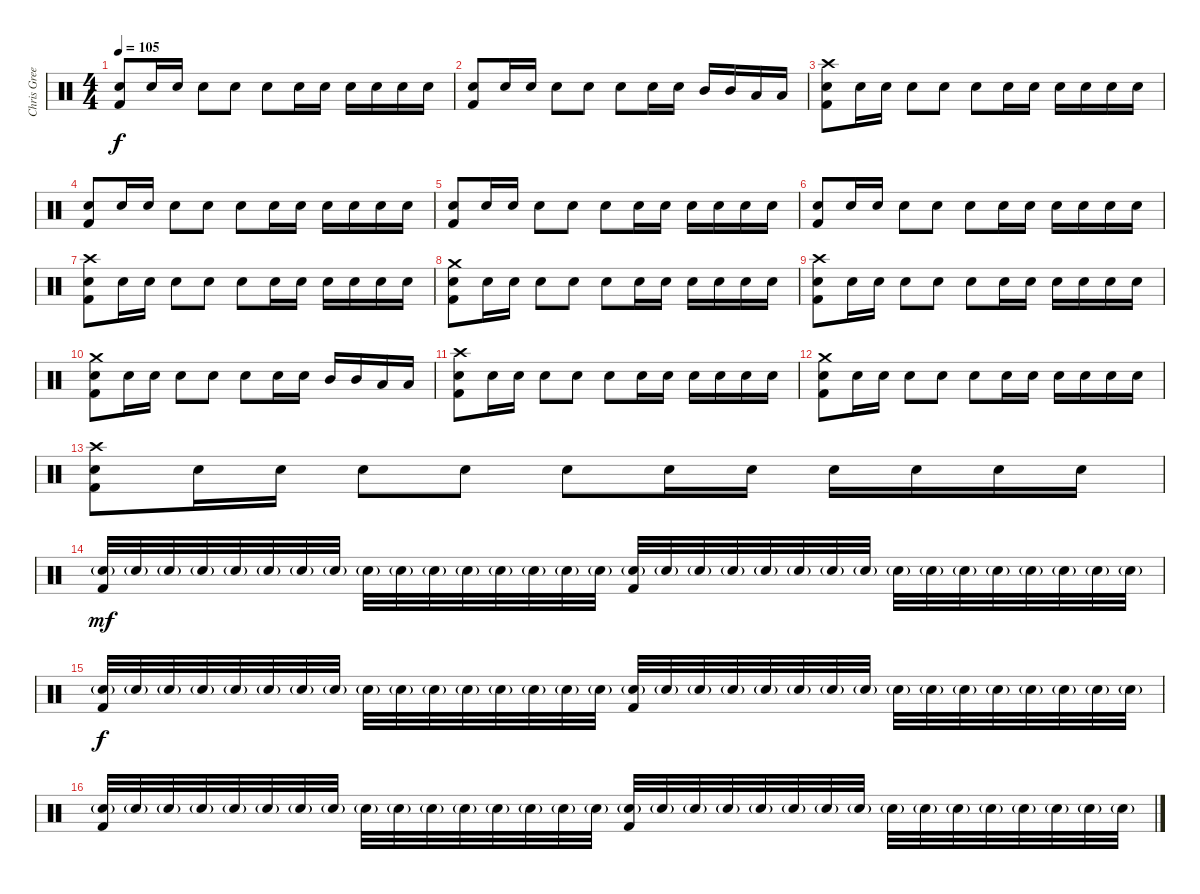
\track ("Chris Greene" "Chris Gree") {instrument percussion}
\staff {score}
\articulation defaults
\ts (4 4)
\tempo 105
\clef neutral
\ks c
("Electric Snare (hit)" "Kick (hit) 2").8{dy f} "Electric Snare (hit)".16 "Electric Snare (hit)".16 "Electric Snare (hit)".8 "Electric Snare (hit)".8 "Electric Snare (hit)".8 "Electric Snare (hit)".16 "Electric Snare (hit)".16 "Electric Snare (hit)".16 "Electric Snare (hit)".16 "Electric Snare (hit)".16 "Electric Snare (hit)".16 |
("Electric Snare (hit)" "Kick (hit) 2").8 "Electric Snare (hit)".16 "Electric Snare (hit)".16 "Electric Snare (hit)".8 "Electric Snare (hit)".8 "Electric Snare (hit)".8 "Electric Snare (hit)".16 "Electric Snare (hit)".16 "Mid Tom (hit)".16 "Mid Tom (hit)".16 "Low Tom (hit)".16 "Low Tom (hit)".16 |
("Crash high (hit)" "Electric Snare (hit)" "Kick (hit) 2").8 "Electric Snare (hit)".16 "Electric Snare (hit)".16 "Electric Snare (hit)".8 "Electric Snare (hit)".8 "Electric Snare (hit)".8 "Electric Snare (hit)".16 "Electric Snare (hit)".16 "Electric Snare (hit)".16 "Electric Snare (hit)".16 "Electric Snare (hit)".16 "Electric Snare (hit)".16 |
("Electric Snare (hit)" "Kick (hit) 2").8 "Electric Snare (hit)".16 "Electric Snare (hit)".16 "Electric Snare (hit)".8 "Electric Snare (hit)".8 "Electric Snare (hit)".8 "Electric Snare (hit)".16 "Electric Snare (hit)".16 "Electric Snare (hit)".16 "Electric Snare (hit)".16 "Electric Snare (hit)".16 "Electric Snare (hit)".16 |
("Electric Snare (hit)" "Kick (hit) 2").8 "Electric Snare (hit)".16 "Electric Snare (hit)".16 "Electric Snare (hit)".8 "Electric Snare (hit)".8 "Electric Snare (hit)".8 "Electric Snare (hit)".16 "Electric Snare (hit)".16 "Electric Snare (hit)".16 "Electric Snare (hit)".16 "Electric Snare (hit)".16 "Electric Snare (hit)".16 |
("Electric Snare (hit)" "Kick (hit) 2").8 "Electric Snare (hit)".16 "Electric Snare (hit)".16 "Electric Snare (hit)".8 "Electric Snare (hit)".8 "Electric Snare (hit)".8 "Electric Snare (hit)".16 "Electric Snare (hit)".16 "Electric Snare (hit)".16 "Electric Snare (hit)".16 "Electric Snare (hit)".16 "Electric Snare (hit)".16 |
("Crash high (hit)" "Electric Snare (hit)" "Kick (hit) 2").8 "Electric Snare (hit)".16 "Electric Snare (hit)".16 "Electric Snare (hit)".8 "Electric Snare (hit)".8 "Electric Snare (hit)".8 "Electric Snare (hit)".16 "Electric Snare (hit)".16 "Electric Snare (hit)".16 "Electric Snare (hit)".16 "Electric Snare (hit)".16 "Electric Snare (hit)".16 |
("Crash medium (hit)" "Electric Snare (hit)" "Kick (hit) 2").8 "Electric Snare (hit)".16 "Electric Snare (hit)".16 "Electric Snare (hit)".8 "Electric Snare (hit)".8 "Electric Snare (hit)".8 "Electric Snare (hit)".16 "Electric Snare (hit)".16 "Electric Snare (hit)".16 "Electric Snare (hit)".16 "Electric Snare (hit)".16 "Electric Snare (hit)".16 |
("Crash high (hit)" "Electric Snare (hit)" "Kick (hit) 2").8 "Electric Snare (hit)".16 "Electric Snare (hit)".16 "Electric Snare (hit)".8 "Electric Snare (hit)".8 "Electric Snare (hit)".8 "Electric Snare (hit)".16 "Electric Snare (hit)".16 "Electric Snare (hit)".16 "Electric Snare (hit)".16 "Electric Snare (hit)".16 "Electric Snare (hit)".16 |
("Crash medium (hit)" "Electric Snare (hit)" "Kick (hit) 2").8 "Electric Snare (hit)".16 "Electric Snare (hit)".16 "Electric Snare (hit)".8 "Electric Snare (hit)".8 "Electric Snare (hit)".8 "Electric Snare (hit)".16 "Electric Snare (hit)".16 "Mid Tom (hit)".16 "Mid Tom (hit)".16 "Low Tom (hit)".16 "Low Tom (hit)".16 |
("Crash high (hit)" "Electric Snare (hit)" "Kick (hit) 2").8 "Electric Snare (hit)".16 "Electric Snare (hit)".16 "Electric Snare (hit)".8 "Electric Snare (hit)".8 "Electric Snare (hit)".8 "Electric Snare (hit)".16 "Electric Snare (hit)".16 "Electric Snare (hit)".16 "Electric Snare (hit)".16 "Electric Snare (hit)".16 "Electric Snare (hit)".16 |
("Crash medium (hit)" "Electric Snare (hit)" "Kick (hit) 2").8 "Electric Snare (hit)".16 "Electric Snare (hit)".16 "Electric Snare (hit)".8 "Electric Snare (hit)".8 "Electric Snare (hit)".8 "Electric Snare (hit)".16 "Electric Snare (hit)".16 "Electric Snare (hit)".16 "Electric Snare (hit)".16 "Electric Snare (hit)".16 "Electric Snare (hit)".16 |
("Crash high (hit)" "Electric Snare (hit)" "Kick (hit) 2").8 "Electric Snare (hit)".16 "Electric Snare (hit)".16 "Electric Snare (hit)".8 "Electric Snare (hit)".8 "Electric Snare (hit)".8 "Electric Snare (hit)".16 "Electric Snare (hit)".16 "Electric Snare (hit)".16 "Electric Snare (hit)".16 "Electric Snare (hit)".16 "Electric Snare (hit)".16 |
("Electric Snare (hit)"{g} "Kick (hit) 2").32{dy mf} "Electric Snare (hit)"{g}.32 "Electric Snare (hit)"{g}.32 "Electric Snare (hit)"{g}.32 "Electric Snare (hit)"{g}.32 "Electric Snare (hit)"{g}.32 "Electric Snare (hit)"{g}.32 "Electric Snare (hit)"{g}.32 "Electric Snare (hit)"{g}.32 "Electric Snare (hit)"{g}.32 "Electric Snare (hit)"{g}.32 "Electric Snare (hit)"{g}.32 "Electric Snare (hit)"{g}.32 "Electric Snare (hit)"{g}.32 "Electric Snare (hit)"{g}.32 "Electric Snare (hit)"{g}.32 ("Electric Snare (hit)"{g} "Kick (hit) 2").32 "Electric Snare (hit)"{g}.32 "Electric Snare (hit)"{g}.32 "Electric Snare (hit)"{g}.32 "Electric Snare (hit)"{g}.32 "Electric Snare (hit)"{g}.32 "Electric Snare (hit)"{g}.32 "Electric Snare (hit)"{g}.32 "Electric Snare (hit)"{g}.32 "Electric Snare (hit)"{g}.32 "Electric Snare (hit)"{g}.32 "Electric Snare (hit)"{g}.32 "Electric Snare (hit)"{g}.32 "Electric Snare (hit)"{g}.32 "Electric Snare (hit)"{g}.32 "Electric Snare (hit)"{g}.32 |
("Electric Snare (hit)"{g} "Kick (hit) 2").32{dy f} "Electric Snare (hit)"{g}.32 "Electric Snare (hit)"{g}.32 "Electric Snare (hit)"{g}.32 "Electric Snare (hit)"{g}.32 "Electric Snare (hit)"{g}.32 "Electric Snare (hit)"{g}.32 "Electric Snare (hit)"{g}.32 "Electric Snare (hit)"{g}.32 "Electric Snare (hit)"{g}.32 "Electric Snare (hit)"{g}.32 "Electric Snare (hit)"{g}.32 "Electric Snare (hit)"{g}.32 "Electric Snare (hit)"{g}.32 "Electric Snare (hit)"{g}.32 "Electric Snare (hit)"{g}.32 ("Electric Snare (hit)"{g} "Kick (hit) 2").32 "Electric Snare (hit)"{g}.32 "Electric Snare (hit)"{g}.32 "Electric Snare (hit)"{g}.32 "Electric Snare (hit)"{g}.32 "Electric Snare (hit)"{g}.32 "Electric Snare (hit)"{g}.32 "Electric Snare (hit)"{g}.32 "Electric Snare (hit)"{g}.32 "Electric Snare (hit)"{g}.32 "Electric Snare (hit)"{g}.32 "Electric Snare (hit)"{g}.32 "Electric Snare (hit)"{g}.32 "Electric Snare (hit)"{g}.32 "Electric Snare (hit)"{g}.32 "Electric Snare (hit)"{g}.32 |
("Electric Snare (hit)"{g} "Kick (hit) 2").32 "Electric Snare (hit)"{g}.32 "Electric Snare (hit)"{g}.32 "Electric Snare (hit)"{g}.32 "Electric Snare (hit)"{g}.32 "Electric Snare (hit)"{g}.32 "Electric Snare (hit)"{g}.32 "Electric Snare (hit)"{g}.32 "Electric Snare (hit)"{g}.32 "Electric Snare (hit)"{g}.32 "Electric Snare (hit)"{g}.32 "Electric Snare (hit)"{g}.32 "Electric Snare (hit)"{g}.32 "Electric Snare (hit)"{g}.32 "Electric Snare (hit)"{g}.32 "Electric Snare (hit)"{g}.32 ("Electric Snare (hit)"{g} "Kick (hit) 2").32 "Electric Snare (hit)"{g}.32 "Electric Snare (hit)"{g}.32 "Electric Snare (hit)"{g}.32 "Electric Snare (hit)"{g}.32 "Electric Snare (hit)"{g}.32 "Electric Snare (hit)"{g}.32 "Electric Snare (hit)"{g}.32 "Electric Snare (hit)"{g}.32 "Electric Snare (hit)"{g}.32 "Electric Snare (hit)"{g}.32 "Electric Snare (hit)"{g}.32 "Electric Snare (hit)"{g}.32 "Electric Snare (hit)"{g}.32 "Electric Snare (hit)"{g}.32 "Electric Snare (hit)"{g}.32
